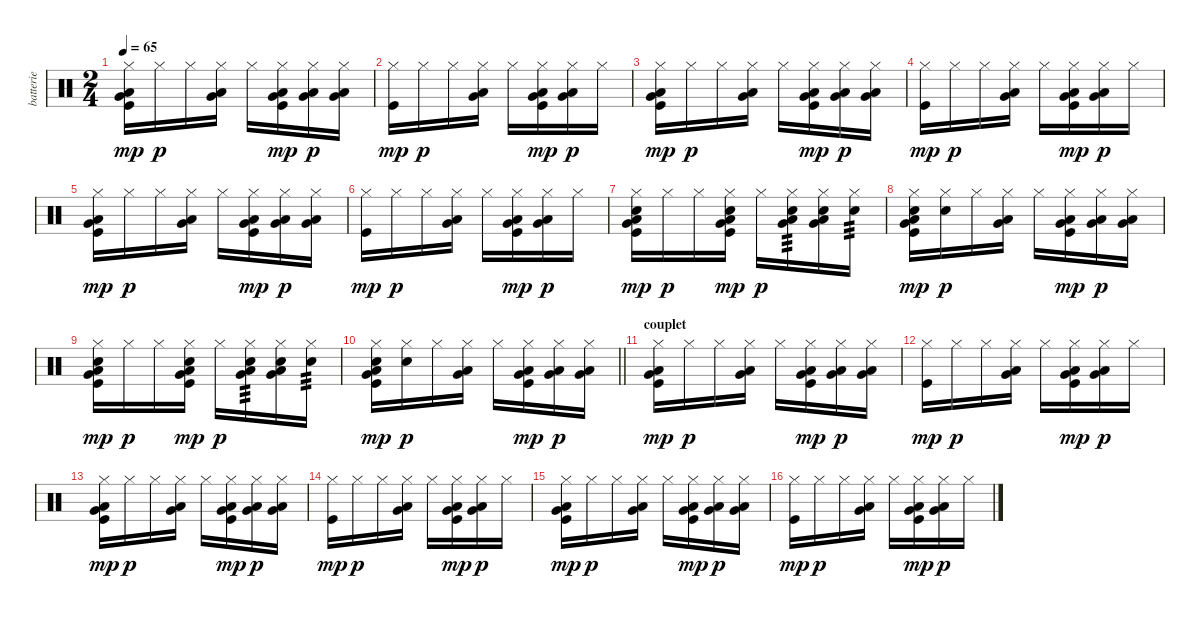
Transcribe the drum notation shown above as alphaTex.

\track ("batterie" "batterie") {instrument percussion}
\staff {score}
\articulation defaults
\ts (2 4)
\tempo 65
\clef neutral
\ks c
("Hi-Hat (closed)" "Low Tom (hit)" "Very Low Tom (hit)" "Kick (hit)").16{dy mp} "Hi-Hat (closed)".16{dy p} "Hi-Hat (closed)".16 ("Hi-Hat (closed)" "Low Tom (hit)" "Very Low Tom (hit)").16 "Hi-Hat (closed)".16 ("Hi-Hat (closed)" "Low Tom (hit)" "Very Low Tom (hit)" "Kick (hit)").16{dy mp} ("Hi-Hat (closed)" "Low Tom (hit)" "Very Low Tom (hit)").16{dy p} ("Hi-Hat (closed)" "Low Tom (hit)" "Very Low Tom (hit)").16 |
("Hi-Hat (closed)" "Kick (hit)").16{dy mp} "Hi-Hat (closed)".16{dy p} "Hi-Hat (closed)".16 ("Hi-Hat (closed)" "Low Tom (hit)" "Very Low Tom (hit)").16 "Hi-Hat (closed)".16 ("Hi-Hat (closed)" "Low Tom (hit)" "Very Low Tom (hit)" "Kick (hit)").16{dy mp} ("Hi-Hat (closed)" "Low Tom (hit)" "Very Low Tom (hit)").16{dy p} "Hi-Hat (closed)".16 |
("Hi-Hat (closed)" "Low Tom (hit)" "Very Low Tom (hit)" "Kick (hit)").16{dy mp} "Hi-Hat (closed)".16{dy p} "Hi-Hat (closed)".16 ("Hi-Hat (closed)" "Low Tom (hit)" "Very Low Tom (hit)").16 "Hi-Hat (closed)".16 ("Hi-Hat (closed)" "Low Tom (hit)" "Very Low Tom (hit)" "Kick (hit)").16{dy mp} ("Hi-Hat (closed)" "Low Tom (hit)" "Very Low Tom (hit)").16{dy p} ("Hi-Hat (closed)" "Low Tom (hit)" "Very Low Tom (hit)").16 |
("Hi-Hat (closed)" "Kick (hit)").16{dy mp} "Hi-Hat (closed)".16{dy p} "Hi-Hat (closed)".16 ("Hi-Hat (closed)" "Low Tom (hit)" "Very Low Tom (hit)").16 "Hi-Hat (closed)".16 ("Hi-Hat (closed)" "Low Tom (hit)" "Very Low Tom (hit)" "Kick (hit)").16{dy mp} ("Hi-Hat (closed)" "Low Tom (hit)" "Very Low Tom (hit)").16{dy p} "Hi-Hat (closed)".16 |
("Hi-Hat (closed)" "Low Tom (hit)" "Very Low Tom (hit)" "Kick (hit)").16{dy mp} "Hi-Hat (closed)".16{dy p} "Hi-Hat (closed)".16 ("Hi-Hat (closed)" "Low Tom (hit)" "Very Low Tom (hit)").16 "Hi-Hat (closed)".16 ("Hi-Hat (closed)" "Low Tom (hit)" "Very Low Tom (hit)" "Kick (hit)").16{dy mp} ("Hi-Hat (closed)" "Low Tom (hit)" "Very Low Tom (hit)").16{dy p} ("Hi-Hat (closed)" "Low Tom (hit)" "Very Low Tom (hit)").16 |
("Hi-Hat (closed)" "Kick (hit)").16{dy mp} "Hi-Hat (closed)".16{dy p} "Hi-Hat (closed)".16 ("Hi-Hat (closed)" "Low Tom (hit)" "Very Low Tom (hit)").16 "Hi-Hat (closed)".16 ("Hi-Hat (closed)" "Low Tom (hit)" "Very Low Tom (hit)" "Kick (hit)").16{dy mp} ("Hi-Hat (closed)" "Low Tom (hit)" "Very Low Tom (hit)").16{dy p} "Hi-Hat (closed)".16 |
("Hi-Hat (closed)" "Low Tom (hit)" "Very Low Tom (hit)" "Kick (hit)" "Electric Snare (hit)").16{dy mp} "Hi-Hat (closed)".16{dy p} "Hi-Hat (closed)".16 ("Hi-Hat (closed)" "Low Tom (hit)" "Very Low Tom (hit)" "Kick (hit)" "Electric Snare (hit)").16{dy mp} "Hi-Hat (closed)".16{dy p} ("Hi-Hat (closed)" "Low Tom (hit)" "Very Low Tom (hit)" "Electric Snare (hit)").16{tp 3} ("Hi-Hat (closed)" "Low Tom (hit)" "Very Low Tom (hit)" "Electric Snare (hit)").16 ("Hi-Hat (closed)" "Electric Snare (hit)").16{tp 3} |
("Hi-Hat (closed)" "Low Tom (hit)" "Very Low Tom (hit)" "Kick (hit)" "Electric Snare (hit)").16{dy mp} ("Hi-Hat (closed)" "Electric Snare (hit)").16{dy p} "Hi-Hat (closed)".16 ("Hi-Hat (closed)" "Low Tom (hit)" "Very Low Tom (hit)").16 "Hi-Hat (closed)".16 ("Hi-Hat (closed)" "Low Tom (hit)" "Very Low Tom (hit)" "Kick (hit)").16{dy mp} ("Hi-Hat (closed)" "Low Tom (hit)" "Very Low Tom (hit)").16{dy p} ("Hi-Hat (closed)" "Low Tom (hit)" "Very Low Tom (hit)").16 |
("Hi-Hat (closed)" "Low Tom (hit)" "Very Low Tom (hit)" "Kick (hit)" "Electric Snare (hit)").16{dy mp} "Hi-Hat (closed)".16{dy p} "Hi-Hat (closed)".16 ("Hi-Hat (closed)" "Low Tom (hit)" "Very Low Tom (hit)" "Kick (hit)" "Electric Snare (hit)").16{dy mp} "Hi-Hat (closed)".16{dy p} ("Hi-Hat (closed)" "Low Tom (hit)" "Very Low Tom (hit)" "Electric Snare (hit)").16{tp 3} ("Hi-Hat (closed)" "Low Tom (hit)" "Very Low Tom (hit)" "Electric Snare (hit)").16 ("Hi-Hat (closed)" "Electric Snare (hit)").16{tp 3} |
\barLineRight lightlight
("Hi-Hat (closed)" "Low Tom (hit)" "Very Low Tom (hit)" "Kick (hit)" "Electric Snare (hit)").16{dy mp} ("Hi-Hat (closed)" "Electric Snare (hit)").16{dy p} "Hi-Hat (closed)".16 ("Hi-Hat (closed)" "Low Tom (hit)" "Very Low Tom (hit)").16 "Hi-Hat (closed)".16 ("Hi-Hat (closed)" "Low Tom (hit)" "Very Low Tom (hit)" "Kick (hit)").16{dy mp} ("Hi-Hat (closed)" "Low Tom (hit)" "Very Low Tom (hit)").16{dy p} ("Hi-Hat (closed)" "Low Tom (hit)" "Very Low Tom (hit)").16 |
\section ("" "couplet ")
("Hi-Hat (closed)" "Low Tom (hit)" "Very Low Tom (hit)" "Kick (hit)").16{dy mp} "Hi-Hat (closed)".16{dy p} "Hi-Hat (closed)".16 ("Hi-Hat (closed)" "Low Tom (hit)" "Very Low Tom (hit)").16 "Hi-Hat (closed)".16 ("Hi-Hat (closed)" "Low Tom (hit)" "Very Low Tom (hit)" "Kick (hit)").16{dy mp} ("Hi-Hat (closed)" "Low Tom (hit)" "Very Low Tom (hit)").16{dy p} ("Hi-Hat (closed)" "Low Tom (hit)" "Very Low Tom (hit)").16 |
("Hi-Hat (closed)" "Kick (hit)").16{dy mp} "Hi-Hat (closed)".16{dy p} "Hi-Hat (closed)".16 ("Hi-Hat (closed)" "Low Tom (hit)" "Very Low Tom (hit)").16 "Hi-Hat (closed)".16 ("Hi-Hat (closed)" "Low Tom (hit)" "Very Low Tom (hit)" "Kick (hit)").16{dy mp} ("Hi-Hat (closed)" "Low Tom (hit)" "Very Low Tom (hit)").16{dy p} "Hi-Hat (closed)".16 |
("Hi-Hat (closed)" "Low Tom (hit)" "Very Low Tom (hit)" "Kick (hit)").16{dy mp} "Hi-Hat (closed)".16{dy p} "Hi-Hat (closed)".16 ("Hi-Hat (closed)" "Low Tom (hit)" "Very Low Tom (hit)").16 "Hi-Hat (closed)".16 ("Hi-Hat (closed)" "Low Tom (hit)" "Very Low Tom (hit)" "Kick (hit)").16{dy mp} ("Hi-Hat (closed)" "Low Tom (hit)" "Very Low Tom (hit)").16{dy p} ("Hi-Hat (closed)" "Low Tom (hit)" "Very Low Tom (hit)").16 |
("Hi-Hat (closed)" "Kick (hit)").16{dy mp} "Hi-Hat (closed)".16{dy p} "Hi-Hat (closed)".16 ("Hi-Hat (closed)" "Low Tom (hit)" "Very Low Tom (hit)").16 "Hi-Hat (closed)".16 ("Hi-Hat (closed)" "Low Tom (hit)" "Very Low Tom (hit)" "Kick (hit)").16{dy mp} ("Hi-Hat (closed)" "Low Tom (hit)" "Very Low Tom (hit)").16{dy p} "Hi-Hat (closed)".16 |
("Hi-Hat (closed)" "Low Tom (hit)" "Very Low Tom (hit)" "Kick (hit)").16{dy mp} "Hi-Hat (closed)".16{dy p} "Hi-Hat (closed)".16 ("Hi-Hat (closed)" "Low Tom (hit)" "Very Low Tom (hit)").16 "Hi-Hat (closed)".16 ("Hi-Hat (closed)" "Low Tom (hit)" "Very Low Tom (hit)" "Kick (hit)").16{dy mp} ("Hi-Hat (closed)" "Low Tom (hit)" "Very Low Tom (hit)").16{dy p} ("Hi-Hat (closed)" "Low Tom (hit)" "Very Low Tom (hit)").16 |
("Hi-Hat (closed)" "Kick (hit)").16{dy mp} "Hi-Hat (closed)".16{dy p} "Hi-Hat (closed)".16 ("Hi-Hat (closed)" "Low Tom (hit)" "Very Low Tom (hit)").16 "Hi-Hat (closed)".16 ("Hi-Hat (closed)" "Low Tom (hit)" "Very Low Tom (hit)" "Kick (hit)").16{dy mp} ("Hi-Hat (closed)" "Low Tom (hit)" "Very Low Tom (hit)").16{dy p} "Hi-Hat (closed)".16
